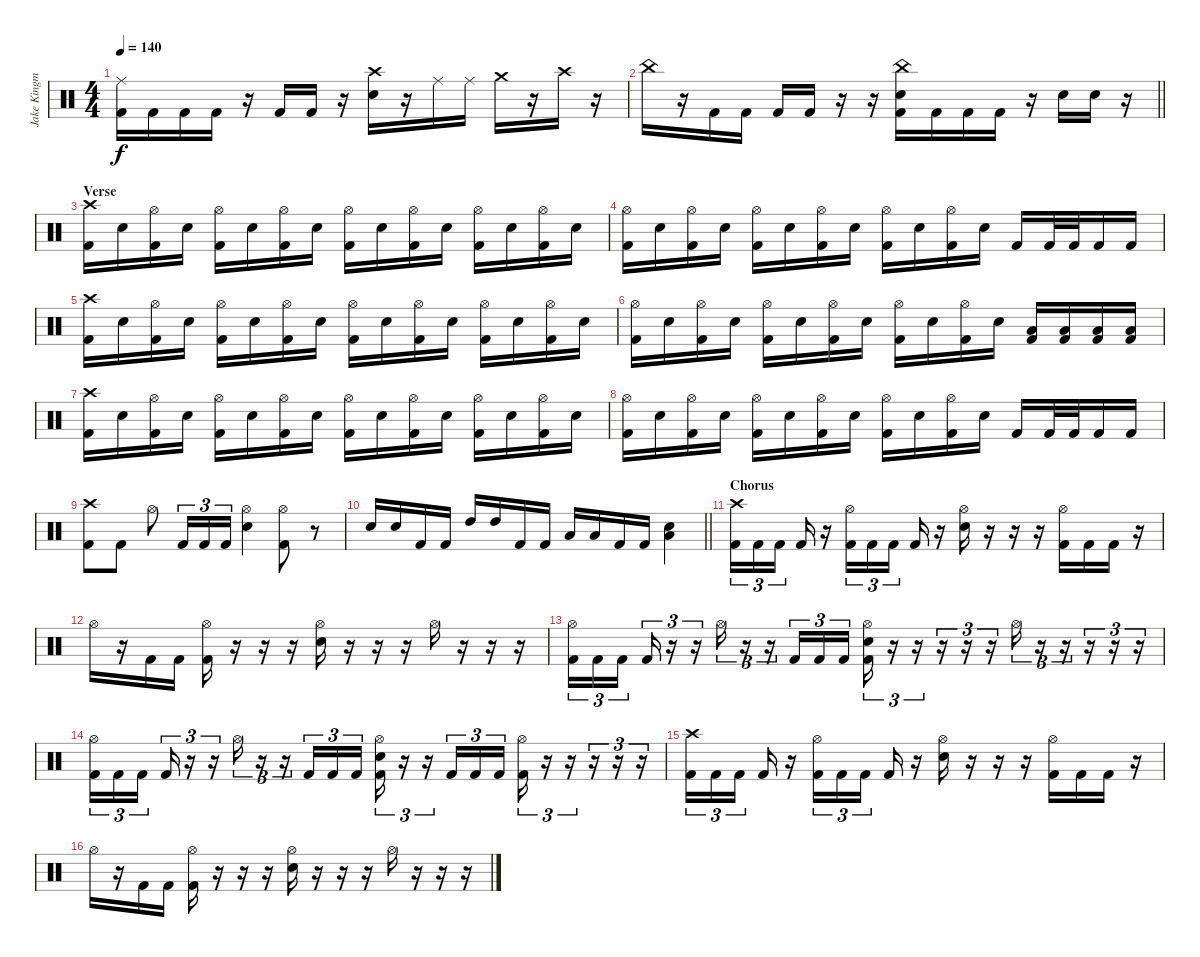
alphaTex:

\track ("Jake Kingman (Drums)" "Jake Kingm") {instrument percussion}
\staff {score}
\articulation defaults
\ts (4 4)
\tempo 140
\clef neutral
\ks c
("Ride (middle)" "Kick (hit) 2").16{dy f} "Kick (hit) 2".16 "Kick (hit) 2".16 "Kick (hit) 2".16 r.16 "Kick (hit) 2".16 "Kick (hit) 2".16 r.16 ("Crash high (hit)" "Electric Snare (hit)").16 r.16 "Ride (middle)".16 "Ride (middle)".16 "Crash medium (hit)".16 r.16 "Crash high (hit)".16 r.16 |
\barLineRight lightlight "China (hit)".16
r.16 "Kick (hit) 2".16 "Kick (hit) 2".16 "Kick (hit) 2".16 "Kick (hit) 2".16 r.16 r.16 ("China (hit)" "Electric Snare (hit)" "Kick (hit) 2").16 "Kick (hit) 2".16 "Kick (hit) 2".16 "Kick (hit) 2".16 r.16 "Electric Snare (hit)".16 "Electric Snare (hit)".16 r.16 |
\section ("" "Verse")
("Crash high (hit)" "Kick (hit) 2").16 "Electric Snare (hit)".16 ("Hi-Hat (open)" "Kick (hit) 2").16 "Electric Snare (hit)".16 ("Hi-Hat (open)" "Kick (hit) 2").16 "Electric Snare (hit)".16 ("Hi-Hat (open)" "Kick (hit) 2").16 "Electric Snare (hit)".16 ("Hi-Hat (open)" "Kick (hit) 2").16 "Electric Snare (hit)".16 ("Hi-Hat (open)" "Kick (hit) 2").16 "Electric Snare (hit)".16 ("Hi-Hat (open)" "Kick (hit) 2").16 "Electric Snare (hit)".16 ("Hi-Hat (open)" "Kick (hit) 2").16 "Electric Snare (hit)".16 |
("Hi-Hat (open)" "Kick (hit) 2").16 "Electric Snare (hit)".16 ("Hi-Hat (open)" "Kick (hit) 2").16 "Electric Snare (hit)".16 ("Hi-Hat (open)" "Kick (hit) 2").16 "Electric Snare (hit)".16 ("Hi-Hat (open)" "Kick (hit) 2").16 "Electric Snare (hit)".16 ("Hi-Hat (open)" "Kick (hit) 2").16 "Electric Snare (hit)".16 ("Hi-Hat (open)" "Kick (hit) 2").16 "Electric Snare (hit)".16 "Kick (hit) 2".16 "Kick (hit) 2".32 "Kick (hit) 2".32 "Kick (hit) 2".16 "Kick (hit) 2".16 |
("Crash high (hit)" "Kick (hit) 2").16 "Electric Snare (hit)".16 ("Hi-Hat (open)" "Kick (hit) 2").16 "Electric Snare (hit)".16 ("Hi-Hat (open)" "Kick (hit) 2").16 "Electric Snare (hit)".16 ("Hi-Hat (open)" "Kick (hit) 2").16 "Electric Snare (hit)".16 ("Hi-Hat (open)" "Kick (hit) 2").16 "Electric Snare (hit)".16 ("Hi-Hat (open)" "Kick (hit) 2").16 "Electric Snare (hit)".16 ("Hi-Hat (open)" "Kick (hit) 2").16 "Electric Snare (hit)".16 ("Hi-Hat (open)" "Kick (hit) 2").16 "Electric Snare (hit)".16 |
("Hi-Hat (open)" "Kick (hit) 2").16 "Electric Snare (hit)".16 ("Hi-Hat (open)" "Kick (hit) 2").16 "Electric Snare (hit)".16 ("Hi-Hat (open)" "Kick (hit) 2").16 "Electric Snare (hit)".16 ("Hi-Hat (open)" "Kick (hit) 2").16 "Electric Snare (hit)".16 ("Hi-Hat (open)" "Kick (hit) 2").16 "Electric Snare (hit)".16 ("Hi-Hat (open)" "Kick (hit) 2").16 "Electric Snare (hit)".16 ("Low Floor Tom (hit)" "Kick (hit) 2").16 ("Low Floor Tom (hit)" "Kick (hit) 2").16 ("Low Floor Tom (hit)" "Kick (hit) 2").16 ("Low Floor Tom (hit)" "Kick (hit) 2").16 |
("Crash high (hit)" "Kick (hit) 2").16 "Electric Snare (hit)".16 ("Hi-Hat (open)" "Kick (hit) 2").16 "Electric Snare (hit)".16 ("Hi-Hat (open)" "Kick (hit) 2").16 "Electric Snare (hit)".16 ("Hi-Hat (open)" "Kick (hit) 2").16 "Electric Snare (hit)".16 ("Hi-Hat (open)" "Kick (hit) 2").16 "Electric Snare (hit)".16 ("Hi-Hat (open)" "Kick (hit) 2").16 "Electric Snare (hit)".16 ("Hi-Hat (open)" "Kick (hit) 2").16 "Electric Snare (hit)".16 ("Hi-Hat (open)" "Kick (hit) 2").16 "Electric Snare (hit)".16 |
("Hi-Hat (open)" "Kick (hit) 2").16 "Electric Snare (hit)".16 ("Hi-Hat (open)" "Kick (hit) 2").16 "Electric Snare (hit)".16 ("Hi-Hat (open)" "Kick (hit) 2").16 "Electric Snare (hit)".16 ("Hi-Hat (open)" "Kick (hit) 2").16 "Electric Snare (hit)".16 ("Hi-Hat (open)" "Kick (hit) 2").16 "Electric Snare (hit)".16 ("Hi-Hat (open)" "Kick (hit) 2").16 "Electric Snare (hit)".16 "Kick (hit) 2".16 "Kick (hit) 2".32 "Kick (hit) 2".32 "Kick (hit) 2".16 "Kick (hit) 2".16 |
("Crash high (hit)" "Kick (hit) 2").8 "Kick (hit) 2".8 "Hi-Hat (open)".8 "Kick (hit) 2".16{tu (3 2)} "Kick (hit) 2".16{tu (3 2)} "Kick (hit) 2".16{tu (3 2)} ("Hi-Hat (open)" "Electric Snare (hit)").4 ("Hi-Hat (open)" "Kick (hit) 2").8 r.8 |
\barLineRight lightlight "Electric Snare (hit)".16 "Electric Snare (hit)".16 "Kick (hit) 2".16 "Kick (hit) 2".16 "High Tom (hit)".16 "High Tom (hit)".16 "Kick (hit) 2".16 "Kick (hit) 2".16 "Low Tom (hit)".16 "Low Tom (hit)".16 "Kick (hit) 2".16 "Kick (hit) 2".16
("Low Floor Tom (hit)" "Electric Snare (hit)").4 |
\section ("" "Chorus ")
("Crash high (hit)" "Kick (hit) 2").16{tu (3 2)} "Kick (hit) 2".16{tu (3 2)} "Kick (hit) 2".16{tu (3 2) beam splitsecondary} "Kick (hit) 2".16 r.16 ("Hi-Hat (open)" "Kick (hit) 2").16{tu (3 2)} "Kick (hit) 2".16{tu (3 2)} "Kick (hit) 2".16{tu (3 2) beam splitsecondary} "Kick (hit) 2".16 r.16 ("Hi-Hat (open)" "Electric Snare (hit)").16 r.16 r.16 r.16 ("Hi-Hat (open)" "Kick (hit) 2").16 "Kick (hit) 2".16 "Kick (hit) 2".16 r.16 |
"Hi-Hat (open)".16 r.16 "Kick (hit) 2".16 "Kick (hit) 2".16 ("Hi-Hat (open)" "Kick (hit) 2").16 r.16 r.16 r.16 ("Hi-Hat (open)" "Electric Snare (hit)").16 r.16 r.16 r.16 "Hi-Hat (open)".16 r.16 r.16 r.16 |
("Hi-Hat (open)" "Kick (hit) 2").16{tu (3 2)} "Kick (hit) 2".16{tu (3 2)} "Kick (hit) 2".16{tu (3 2) beam splitsecondary} "Kick (hit) 2".16{tu (3 2)} r.16{tu (3 2)} r.16{tu (3 2)} "Hi-Hat (open)".16{tu (3 2)} r.16{tu (3 2)} r.16{tu (3 2)} "Kick (hit) 2".16{tu (3 2)} "Kick (hit) 2".16{tu (3 2)} "Kick (hit) 2".16{tu (3 2)} ("Hi-Hat (open)" "Electric Snare (hit)" "Kick (hit) 2").16{tu (3 2)} r.16{tu (3 2)} r.16{tu (3 2)} r.16{tu (3 2)} r.16{tu (3 2)} r.16{tu (3 2)} "Hi-Hat (open)".16{tu (3 2)} r.16{tu (3 2)} r.16{tu (3 2)} r.16{tu (3 2)} r.16{tu (3 2)} r.16{tu (3 2)} |
("Hi-Hat (open)" "Kick (hit) 2").16{tu (3 2)} "Kick (hit) 2".16{tu (3 2)} "Kick (hit) 2".16{tu (3 2) beam splitsecondary} "Kick (hit) 2".16{tu (3 2)} r.16{tu (3 2)} r.16{tu (3 2)} "Hi-Hat (open)".16{tu (3 2)} r.16{tu (3 2)} r.16{tu (3 2)} "Kick (hit) 2".16{tu (3 2)} "Kick (hit) 2".16{tu (3 2)} "Kick (hit) 2".16{tu (3 2)} ("Hi-Hat (open)" "Electric Snare (hit)" "Kick (hit) 2").16{tu (3 2)} r.16{tu (3 2)} r.16{tu (3 2)} "Kick (hit) 2".16{tu (3 2)} "Kick (hit) 2".16{tu (3 2)} "Kick (hit) 2".16{tu (3 2)} ("Hi-Hat (open)" "Kick (hit) 2").16{tu (3 2)} r.16{tu (3 2)} r.16{tu (3 2)} r.16{tu (3 2)} r.16{tu (3 2)} r.16{tu (3 2)} |
("Crash high (hit)" "Kick (hit) 2").16{tu (3 2)} "Kick (hit) 2".16{tu (3 2)} "Kick (hit) 2".16{tu (3 2) beam splitsecondary} "Kick (hit) 2".16 r.16 ("Hi-Hat (open)" "Kick (hit) 2").16{tu (3 2)} "Kick (hit) 2".16{tu (3 2)} "Kick (hit) 2".16{tu (3 2) beam splitsecondary} "Kick (hit) 2".16 r.16 ("Hi-Hat (open)" "Electric Snare (hit)").16 r.16 r.16 r.16 ("Hi-Hat (open)" "Kick (hit) 2").16 "Kick (hit) 2".16 "Kick (hit) 2".16 r.16 |
"Hi-Hat (open)".16 r.16 "Kick (hit) 2".16 "Kick (hit) 2".16 ("Hi-Hat (open)" "Kick (hit) 2").16 r.16 r.16 r.16 ("Hi-Hat (open)" "Electric Snare (hit)").16 r.16 r.16 r.16 "Hi-Hat (open)".16 r.16 r.16 r.16
